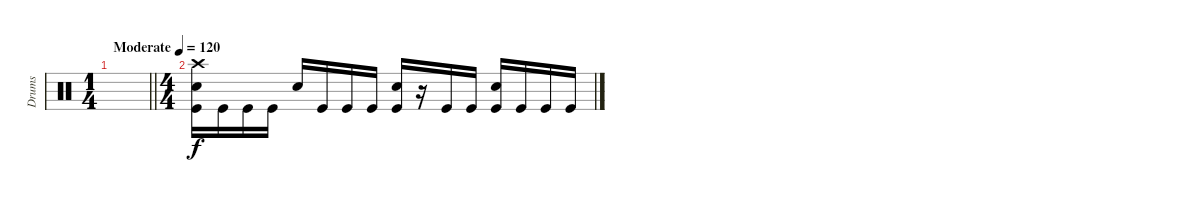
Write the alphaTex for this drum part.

\track ("Drums" "Drums") {instrument percussion}
\staff
\articulation defaults
\ts (1 4)
\tempo (120 "Moderate")
\clef neutral
\barLineRight lightlight
\ks c
|
\ts (4 4)
("Crash high (hit)" "Electric Snare (hit)" "Kick (hit)").16 "Kick (hit)".16 "Kick (hit)".16 "Kick (hit)".16 "Electric Snare (hit)".16 "Kick (hit)".16 "Kick (hit)".16 "Kick (hit)".16 ("Electric Snare (hit)" "Kick (hit)").16 r.16 "Kick (hit)".16 "Kick (hit)".16 ("Electric Snare (hit)" "Kick (hit)").16 "Kick (hit)".16 "Kick (hit)".16 "Kick (hit)".16
